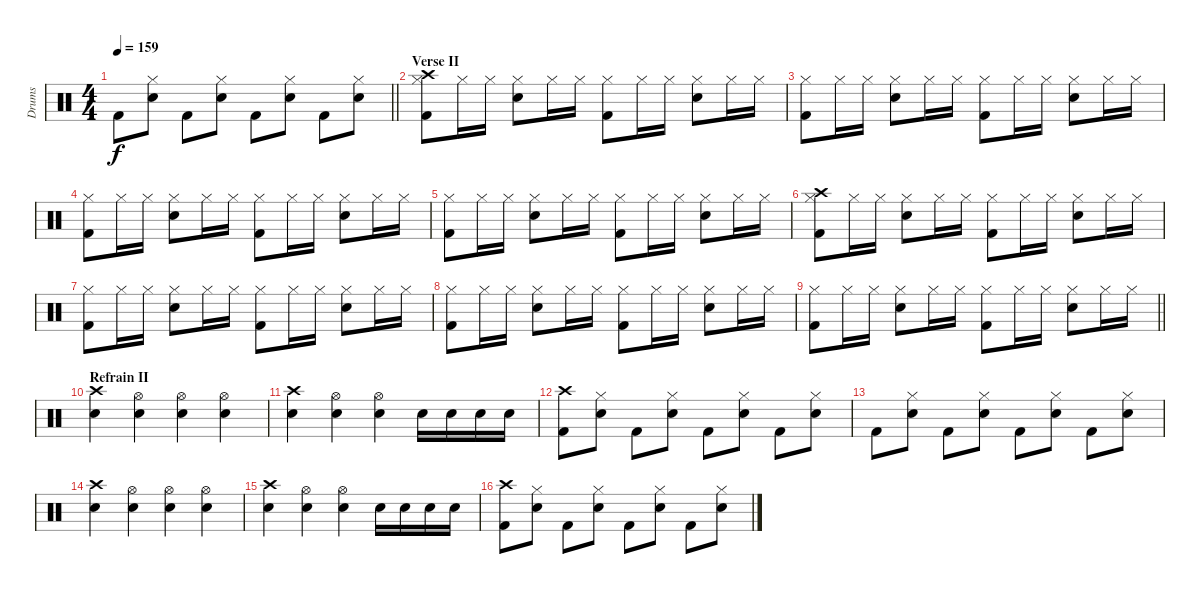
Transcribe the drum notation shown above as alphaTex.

\track ("Drums" "Drums") {instrument percussion}
\staff {score}
\articulation defaults
\ts (4 4)
\tempo 159
\clef neutral
\barLineRight lightlight
\ks c "Kick (hit) 2".8{dy f}
("Hi-Hat (closed)" "Snare (hit) 2").8 "Kick (hit) 2".8 ("Hi-Hat (closed)" "Snare (hit) 2").8 "Kick (hit) 2".8 ("Hi-Hat (closed)" "Snare (hit) 2").8 "Kick (hit) 2".8 ("Hi-Hat (closed)" "Snare (hit) 2").8 |
\section ("" "Verse II")
("Crash high (hit)" "Hi-Hat (closed)" "Kick (hit) 2").8 "Hi-Hat (closed)".16 "Hi-Hat (closed)".16 ("Hi-Hat (closed)" "Snare (hit) 2").8 "Hi-Hat (closed)".16 "Hi-Hat (closed)".16 ("Hi-Hat (closed)" "Kick (hit) 2").8 "Hi-Hat (closed)".16 "Hi-Hat (closed)".16 ("Hi-Hat (closed)" "Snare (hit) 2").8 "Hi-Hat (closed)".16 "Hi-Hat (closed)".16 |
("Hi-Hat (closed)" "Kick (hit) 2").8 "Hi-Hat (closed)".16 "Hi-Hat (closed)".16 ("Hi-Hat (closed)" "Snare (hit) 2").8 "Hi-Hat (closed)".16 "Hi-Hat (closed)".16 ("Hi-Hat (closed)" "Kick (hit) 2").8 "Hi-Hat (closed)".16 "Hi-Hat (closed)".16 ("Hi-Hat (closed)" "Snare (hit) 2").8 "Hi-Hat (closed)".16 "Hi-Hat (closed)".16 |
("Hi-Hat (closed)" "Kick (hit) 2").8 "Hi-Hat (closed)".16 "Hi-Hat (closed)".16 ("Hi-Hat (closed)" "Snare (hit) 2").8 "Hi-Hat (closed)".16 "Hi-Hat (closed)".16 ("Hi-Hat (closed)" "Kick (hit) 2").8 "Hi-Hat (closed)".16 "Hi-Hat (closed)".16 ("Hi-Hat (closed)" "Snare (hit) 2").8 "Hi-Hat (closed)".16 "Hi-Hat (closed)".16 |
("Hi-Hat (closed)" "Kick (hit) 2").8 "Hi-Hat (closed)".16 "Hi-Hat (closed)".16 ("Hi-Hat (closed)" "Snare (hit) 2").8 "Hi-Hat (closed)".16 "Hi-Hat (closed)".16 ("Hi-Hat (closed)" "Kick (hit) 2").8 "Hi-Hat (closed)".16 "Hi-Hat (closed)".16 ("Hi-Hat (closed)" "Snare (hit) 2").8 "Hi-Hat (closed)".16 "Hi-Hat (closed)".16 |
("Crash high (hit)" "Hi-Hat (closed)" "Kick (hit) 2").8 "Hi-Hat (closed)".16 "Hi-Hat (closed)".16 ("Hi-Hat (closed)" "Snare (hit) 2").8 "Hi-Hat (closed)".16 "Hi-Hat (closed)".16 ("Hi-Hat (closed)" "Kick (hit) 2").8 "Hi-Hat (closed)".16 "Hi-Hat (closed)".16 ("Hi-Hat (closed)" "Snare (hit) 2").8 "Hi-Hat (closed)".16 "Hi-Hat (closed)".16 |
("Hi-Hat (closed)" "Kick (hit) 2").8 "Hi-Hat (closed)".16 "Hi-Hat (closed)".16 ("Hi-Hat (closed)" "Snare (hit) 2").8 "Hi-Hat (closed)".16 "Hi-Hat (closed)".16 ("Hi-Hat (closed)" "Kick (hit) 2").8 "Hi-Hat (closed)".16 "Hi-Hat (closed)".16 ("Hi-Hat (closed)" "Snare (hit) 2").8 "Hi-Hat (closed)".16 "Hi-Hat (closed)".16 |
("Hi-Hat (closed)" "Kick (hit) 2").8 "Hi-Hat (closed)".16 "Hi-Hat (closed)".16 ("Hi-Hat (closed)" "Snare (hit) 2").8 "Hi-Hat (closed)".16 "Hi-Hat (closed)".16 ("Hi-Hat (closed)" "Kick (hit) 2").8 "Hi-Hat (closed)".16 "Hi-Hat (closed)".16 ("Hi-Hat (closed)" "Snare (hit) 2").8 "Hi-Hat (closed)".16 "Hi-Hat (closed)".16 |
\barLineRight lightlight
("Hi-Hat (closed)" "Kick (hit) 2").8 "Hi-Hat (closed)".16 "Hi-Hat (closed)".16 ("Hi-Hat (closed)" "Snare (hit) 2").8 "Hi-Hat (closed)".16 "Hi-Hat (closed)".16 ("Hi-Hat (closed)" "Kick (hit) 2").8 "Hi-Hat (closed)".16 "Hi-Hat (closed)".16 ("Hi-Hat (closed)" "Snare (hit) 2").8 "Hi-Hat (closed)".16 "Hi-Hat (closed)".16 |
\section ("" "Refrain II")
("Crash high (hit)" "Snare (hit) 2").4 ("Hi-Hat (open)" "Snare (hit) 2").4 ("Hi-Hat (open)" "Snare (hit) 2").4 ("Hi-Hat (open)" "Snare (hit) 2").4 |
("Crash high (hit)" "Snare (hit) 2").4 ("Hi-Hat (open)" "Snare (hit) 2").4 ("Hi-Hat (open)" "Snare (hit) 2").4 "Snare (hit) 2".16 "Snare (hit) 2".16 "Snare (hit) 2".16 "Snare (hit) 2".16 |
("Crash high (hit)" "Kick (hit) 2").8 ("Hi-Hat (closed)" "Snare (hit) 2").8 "Kick (hit) 2".8 ("Hi-Hat (closed)" "Snare (hit) 2").8 "Kick (hit) 2".8 ("Hi-Hat (closed)" "Snare (hit) 2").8 "Kick (hit) 2".8 ("Hi-Hat (closed)" "Snare (hit) 2").8 |
"Kick (hit) 2".8 ("Hi-Hat (closed)" "Snare (hit) 2").8 "Kick (hit) 2".8 ("Hi-Hat (closed)" "Snare (hit) 2").8 "Kick (hit) 2".8 ("Hi-Hat (closed)" "Snare (hit) 2").8 "Kick (hit) 2".8 ("Hi-Hat (closed)" "Snare (hit) 2").8 |
("Crash high (hit)" "Snare (hit) 2").4 ("Hi-Hat (open)" "Snare (hit) 2").4 ("Hi-Hat (open)" "Snare (hit) 2").4 ("Hi-Hat (open)" "Snare (hit) 2").4 |
("Crash high (hit)" "Snare (hit) 2").4 ("Hi-Hat (open)" "Snare (hit) 2").4 ("Hi-Hat (open)" "Snare (hit) 2").4 "Snare (hit) 2".16 "Snare (hit) 2".16 "Snare (hit) 2".16 "Snare (hit) 2".16 |
("Crash high (hit)" "Kick (hit) 2").8 ("Hi-Hat (closed)" "Snare (hit) 2").8 "Kick (hit) 2".8 ("Hi-Hat (closed)" "Snare (hit) 2").8 "Kick (hit) 2".8 ("Hi-Hat (closed)" "Snare (hit) 2").8 "Kick (hit) 2".8 ("Hi-Hat (closed)" "Snare (hit) 2").8
